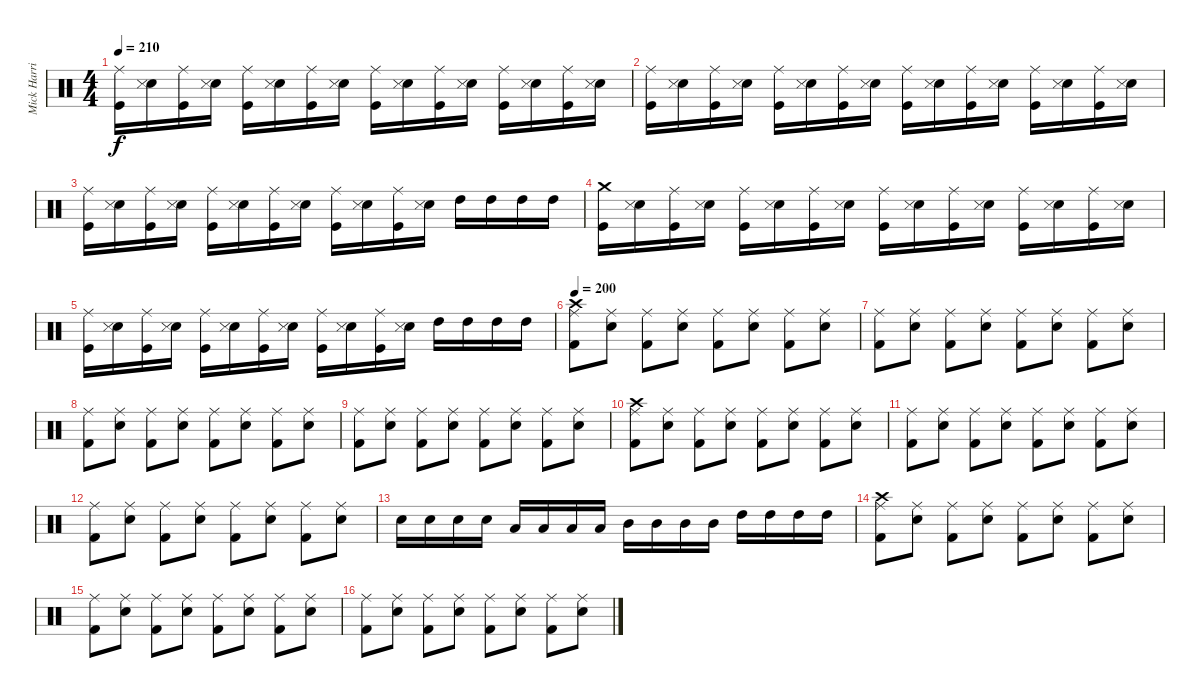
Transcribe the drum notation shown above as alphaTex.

\track ("Mick Harris (Drums)" "Mick Harri") {instrument percussion}
\staff {score}
\articulation defaults
\ts (4 4)
\tempo 210
\clef neutral
\ks c
("Kick (hit)" "Ride (middle)").16{dy f} ("Electric Snare (hit)" "Snare (side stick) 3").16 ("Kick (hit)" "Ride (middle)").16 ("Electric Snare (hit)" "Snare (side stick) 3").16 ("Kick (hit)" "Ride (middle)").16 ("Electric Snare (hit)" "Snare (side stick) 3").16 ("Kick (hit)" "Ride (middle)").16 ("Electric Snare (hit)" "Snare (side stick) 3").16 ("Kick (hit)" "Ride (middle)").16 ("Electric Snare (hit)" "Snare (side stick) 3").16 ("Kick (hit)" "Ride (middle)").16 ("Electric Snare (hit)" "Snare (side stick) 3").16 ("Kick (hit)" "Ride (middle)").16 ("Electric Snare (hit)" "Snare (side stick) 3").16 ("Kick (hit)" "Ride (middle)").16 ("Electric Snare (hit)" "Snare (side stick) 3").16 |
("Kick (hit)" "Ride (middle)").16 ("Electric Snare (hit)" "Snare (side stick) 3").16 ("Kick (hit)" "Ride (middle)").16 ("Electric Snare (hit)" "Snare (side stick) 3").16 ("Kick (hit)" "Ride (middle)").16 ("Electric Snare (hit)" "Snare (side stick) 3").16 ("Kick (hit)" "Ride (middle)").16 ("Electric Snare (hit)" "Snare (side stick) 3").16 ("Kick (hit)" "Ride (middle)").16 ("Electric Snare (hit)" "Snare (side stick) 3").16 ("Kick (hit)" "Ride (middle)").16 ("Electric Snare (hit)" "Snare (side stick) 3").16 ("Kick (hit)" "Ride (middle)").16 ("Electric Snare (hit)" "Snare (side stick) 3").16 ("Kick (hit)" "Ride (middle)").16 ("Electric Snare (hit)" "Snare (side stick) 3").16 |
("Kick (hit)" "Ride (middle)").16 ("Electric Snare (hit)" "Snare (side stick) 3").16 ("Kick (hit)" "Ride (middle)").16 ("Electric Snare (hit)" "Snare (side stick) 3").16 ("Kick (hit)" "Ride (middle)").16 ("Electric Snare (hit)" "Snare (side stick) 3").16 ("Kick (hit)" "Ride (middle)").16 ("Electric Snare (hit)" "Snare (side stick) 3").16 ("Kick (hit)" "Ride (middle)").16 ("Electric Snare (hit)" "Snare (side stick) 3").16 ("Kick (hit)" "Ride (middle)").16 ("Electric Snare (hit)" "Snare (side stick) 3").16 "High Tom (hit)".16 "High Tom (hit)".16 "High Tom (hit)".16 "High Tom (hit)".16 |
("Kick (hit)" "Crash medium (hit)").16 ("Electric Snare (hit)" "Snare (side stick) 3").16 ("Kick (hit)" "Ride (middle)").16 ("Electric Snare (hit)" "Snare (side stick) 3").16 ("Kick (hit)" "Ride (middle)").16 ("Electric Snare (hit)" "Snare (side stick) 3").16 ("Kick (hit)" "Ride (middle)").16 ("Electric Snare (hit)" "Snare (side stick) 3").16 ("Kick (hit)" "Ride (middle)").16 ("Electric Snare (hit)" "Snare (side stick) 3").16 ("Kick (hit)" "Ride (middle)").16 ("Electric Snare (hit)" "Snare (side stick) 3").16 ("Kick (hit)" "Ride (middle)").16 ("Electric Snare (hit)" "Snare (side stick) 3").16 ("Kick (hit)" "Ride (middle)").16 ("Electric Snare (hit)" "Snare (side stick) 3").16 |
("Kick (hit)" "Ride (middle)").16 ("Electric Snare (hit)" "Snare (side stick) 3").16 ("Kick (hit)" "Ride (middle)").16 ("Electric Snare (hit)" "Snare (side stick) 3").16 ("Kick (hit)" "Ride (middle)").16 ("Electric Snare (hit)" "Snare (side stick) 3").16 ("Kick (hit)" "Ride (middle)").16 ("Electric Snare (hit)" "Snare (side stick) 3").16 ("Kick (hit)" "Ride (middle)").16 ("Electric Snare (hit)" "Snare (side stick) 3").16 ("Kick (hit)" "Ride (middle)").16 ("Electric Snare (hit)" "Snare (side stick) 3").16 "High Tom (hit)".16 "High Tom (hit)".16 "High Tom (hit)".16 "High Tom (hit)".16 |
\tempo 200
("Kick (hit) 2" "Crash high (hit)" "Ride (middle)").8 ("Electric Snare (hit)" "Ride (middle)").8 ("Kick (hit) 2" "Ride (middle)").8 ("Electric Snare (hit)" "Ride (middle)").8 ("Kick (hit) 2" "Ride (middle)").8 ("Electric Snare (hit)" "Ride (middle)").8 ("Kick (hit) 2" "Ride (middle)").8 ("Electric Snare (hit)" "Ride (middle)").8 |
("Kick (hit) 2" "Ride (middle)").8 ("Electric Snare (hit)" "Ride (middle)").8 ("Kick (hit) 2" "Ride (middle)").8 ("Electric Snare (hit)" "Ride (middle)").8 ("Kick (hit) 2" "Ride (middle)").8 ("Electric Snare (hit)" "Ride (middle)").8 ("Kick (hit) 2" "Ride (middle)").8 ("Electric Snare (hit)" "Ride (middle)").8 |
("Kick (hit) 2" "Ride (middle)").8 ("Electric Snare (hit)" "Ride (middle)").8 ("Kick (hit) 2" "Ride (middle)").8 ("Electric Snare (hit)" "Ride (middle)").8 ("Kick (hit) 2" "Ride (middle)").8 ("Electric Snare (hit)" "Ride (middle)").8 ("Kick (hit) 2" "Ride (middle)").8 ("Electric Snare (hit)" "Ride (middle)").8 |
("Kick (hit) 2" "Ride (middle)").8 ("Electric Snare (hit)" "Ride (middle)").8 ("Kick (hit) 2" "Ride (middle)").8 ("Electric Snare (hit)" "Ride (middle)").8 ("Kick (hit) 2" "Ride (middle)").8 ("Electric Snare (hit)" "Ride (middle)").8 ("Kick (hit) 2" "Ride (middle)").8 ("Electric Snare (hit)" "Ride (middle)").8 |
("Kick (hit) 2" "Crash high (hit)" "Ride (middle)").8 ("Electric Snare (hit)" "Ride (middle)").8 ("Kick (hit) 2" "Ride (middle)").8 ("Electric Snare (hit)" "Ride (middle)").8 ("Kick (hit) 2" "Ride (middle)").8 ("Electric Snare (hit)" "Ride (middle)").8 ("Kick (hit) 2" "Ride (middle)").8 ("Electric Snare (hit)" "Ride (middle)").8 |
("Kick (hit) 2" "Ride (middle)").8 ("Electric Snare (hit)" "Ride (middle)").8 ("Kick (hit) 2" "Ride (middle)").8 ("Electric Snare (hit)" "Ride (middle)").8 ("Kick (hit) 2" "Ride (middle)").8 ("Electric Snare (hit)" "Ride (middle)").8 ("Kick (hit) 2" "Ride (middle)").8 ("Electric Snare (hit)" "Ride (middle)").8 |
("Kick (hit) 2" "Ride (middle)").8 ("Electric Snare (hit)" "Ride (middle)").8 ("Kick (hit) 2" "Ride (middle)").8 ("Electric Snare (hit)" "Ride (middle)").8 ("Kick (hit) 2" "Ride (middle)").8 ("Electric Snare (hit)" "Ride (middle)").8 ("Kick (hit) 2" "Ride (middle)").8 ("Electric Snare (hit)" "Ride (middle)").8 |
"Electric Snare (hit)".16 "Electric Snare (hit)".16 "Electric Snare (hit)".16 "Electric Snare (hit)".16 "Low Tom (hit)".16 "Low Tom (hit)".16 "Low Tom (hit)".16 "Low Tom (hit)".16 "Mid Tom (hit)".16 "Mid Tom (hit)".16 "Mid Tom (hit)".16 "Mid Tom (hit)".16 "High Tom (hit)".16 "High Tom (hit)".16 "High Tom (hit)".16 "High Tom (hit)".16 |
("Kick (hit) 2" "Crash high (hit)" "Ride (middle)").8 ("Electric Snare (hit)" "Ride (middle)").8 ("Kick (hit) 2" "Ride (middle)").8 ("Electric Snare (hit)" "Ride (middle)").8 ("Kick (hit) 2" "Ride (middle)").8 ("Electric Snare (hit)" "Ride (middle)").8 ("Kick (hit) 2" "Ride (middle)").8 ("Electric Snare (hit)" "Ride (middle)").8 |
("Kick (hit) 2" "Ride (middle)").8 ("Electric Snare (hit)" "Ride (middle)").8 ("Kick (hit) 2" "Ride (middle)").8 ("Electric Snare (hit)" "Ride (middle)").8 ("Kick (hit) 2" "Ride (middle)").8 ("Electric Snare (hit)" "Ride (middle)").8 ("Kick (hit) 2" "Ride (middle)").8 ("Electric Snare (hit)" "Ride (middle)").8 |
("Kick (hit) 2" "Ride (middle)").8 ("Electric Snare (hit)" "Ride (middle)").8 ("Kick (hit) 2" "Ride (middle)").8 ("Electric Snare (hit)" "Ride (middle)").8 ("Kick (hit) 2" "Ride (middle)").8 ("Electric Snare (hit)" "Ride (middle)").8 ("Kick (hit) 2" "Ride (middle)").8 ("Electric Snare (hit)" "Ride (middle)").8
